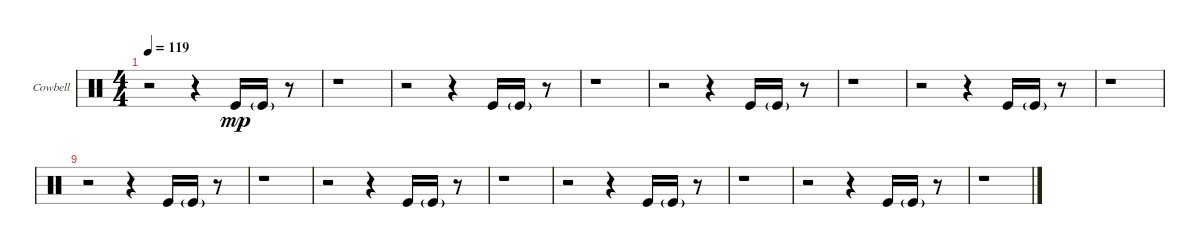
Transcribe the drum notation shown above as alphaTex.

\defaultSystemsLayout 4
\bracketExtendMode groupsimilarinstruments
\useSystemSignSeparator
\multiBarRest
\multiTrackTrackNamePolicy allsystems
\firstSystemTrackNameMode fullname
\firstSystemTrackNameOrientation horizontal
\otherSystemsTrackNameOrientation horizontal
\defaultBarNumberDisplay FirstOfSystem
\track ("Cowbell" "Cowbell") {multiBarRest instrument percussion}
\staff {score}
\articulation defaults
\ts (4 4)
\tempo 119
\clef neutral
\ks aminor
r.2{dy mp} r.4 "Kick (hit)".16 "Kick (hit)"{g}.16 r.8 |
r.1 |
r.2 r.4 "Kick (hit)".16 "Kick (hit)"{g}.16 r.8 |
r.1 |
r.2 r.4 "Kick (hit)".16 "Kick (hit)"{g}.16 r.8 |
r.1 |
r.2 r.4 "Kick (hit)".16 "Kick (hit)"{g}.16 r.8 |
r.1 |
r.2 r.4 "Kick (hit)".16 "Kick (hit)"{g}.16 r.8 |
r.1 |
r.2 r.4 "Kick (hit)".16 "Kick (hit)"{g}.16 r.8 |
r.1 |
r.2 r.4 "Kick (hit)".16 "Kick (hit)"{g}.16 r.8 |
r.1 |
r.2 r.4 "Kick (hit)".16 "Kick (hit)"{g}.16 r.8 |
r.1
